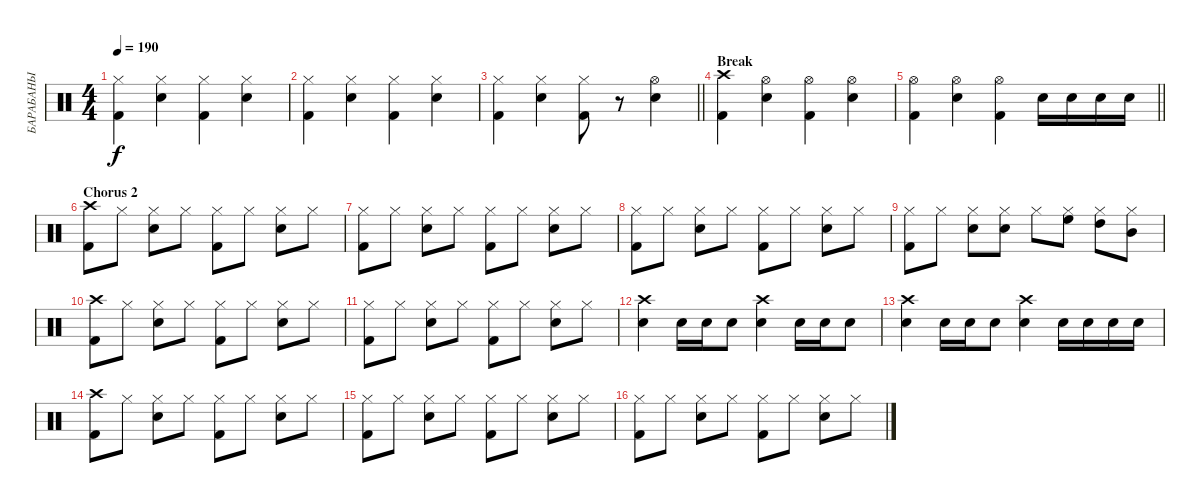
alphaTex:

\track ("БАРАБАНЫ" "БАРАБАНЫ") {instrument percussion}
\staff {score}
\articulation defaults
\ts (4 4)
\tempo 190
\clef neutral
\ks c
("Hi-Hat (closed)" "Kick (hit) 2").4{dy f} ("Hi-Hat (closed)" "Snare (hit) 2").4 ("Hi-Hat (closed)" "Kick (hit) 2").4 ("Hi-Hat (closed)" "Snare (hit) 2").4 |
("Hi-Hat (closed)" "Kick (hit) 2").4 ("Hi-Hat (closed)" "Snare (hit) 2").4 ("Hi-Hat (closed)" "Kick (hit) 2").4 ("Hi-Hat (closed)" "Snare (hit) 2").4 |
\barLineRight lightlight
("Hi-Hat (closed)" "Kick (hit) 2").4 ("Hi-Hat (closed)" "Snare (hit) 2").4 ("Hi-Hat (closed)" "Kick (hit) 2").8 r.8 ("Hi-Hat (open)" "Snare (hit) 2").4 |
\section ("" "Break")
("Crash high (hit)" "Kick (hit) 2").4 ("Hi-Hat (open)" "Snare (hit) 2").4 ("Hi-Hat (open)" "Kick (hit) 2").4 ("Hi-Hat (open)" "Snare (hit) 2").4 |
\barLineRight lightlight
("Hi-Hat (open)" "Kick (hit) 2").4 ("Hi-Hat (open)" "Snare (hit) 2").4 ("Hi-Hat (open)" "Kick (hit) 2").4 "Snare (hit) 2".16 "Snare (hit) 2".16 "Snare (hit) 2".16 "Snare (hit) 2".16 |
\section ("" "Chorus 2")
("Crash high (hit)" "Kick (hit) 2").8 "Hi-Hat (closed)".8 ("Hi-Hat (closed)" "Snare (hit) 2").8 "Hi-Hat (closed)".8 ("Hi-Hat (closed)" "Kick (hit) 2").8 "Hi-Hat (closed)".8 ("Hi-Hat (closed)" "Snare (hit) 2").8 "Hi-Hat (closed)".8 |
("Hi-Hat (closed)" "Kick (hit) 2").8 "Hi-Hat (closed)".8 ("Hi-Hat (closed)" "Snare (hit) 2").8 "Hi-Hat (closed)".8 ("Hi-Hat (closed)" "Kick (hit) 2").8 "Hi-Hat (closed)".8 ("Hi-Hat (closed)" "Snare (hit) 2").8 "Hi-Hat (closed)".8 |
("Hi-Hat (closed)" "Kick (hit) 2").8 "Hi-Hat (closed)".8 ("Hi-Hat (closed)" "Snare (hit) 2").8 "Hi-Hat (closed)".8 ("Hi-Hat (closed)" "Kick (hit) 2").8 "Hi-Hat (closed)".8 ("Hi-Hat (closed)" "Snare (hit) 2").8 "Hi-Hat (closed)".8 |
("Hi-Hat (closed)" "Kick (hit) 2").8 "Hi-Hat (closed)".8 ("Hi-Hat (closed)" "Snare (hit) 2").8 ("Hi-Hat (closed)" "Snare (hit) 2").8 "Hi-Hat (closed)".8 ("Hi-Hat (closed)" "High Floor Tom (hit)").8 ("Hi-Hat (closed)" "High Tom (hit)").8 ("Hi-Hat (closed)" "Mid Tom (hit)").8 |
("Crash high (hit)" "Kick (hit) 2").8 "Hi-Hat (closed)".8 ("Hi-Hat (closed)" "Snare (hit) 2").8 "Hi-Hat (closed)".8 ("Hi-Hat (closed)" "Kick (hit) 2").8 "Hi-Hat (closed)".8 ("Hi-Hat (closed)" "Snare (hit) 2").8 "Hi-Hat (closed)".8 |
("Hi-Hat (closed)" "Kick (hit) 2").8 "Hi-Hat (closed)".8 ("Hi-Hat (closed)" "Snare (hit) 2").8 "Hi-Hat (closed)".8 ("Hi-Hat (closed)" "Kick (hit) 2").8 "Hi-Hat (closed)".8 ("Hi-Hat (closed)" "Snare (hit) 2").8 "Hi-Hat (closed)".8 |
("Crash high (hit)" "Snare (hit) 2").4 "Snare (hit) 2".16 "Snare (hit) 2".16 "Snare (hit) 2".8 ("Crash high (hit)" "Snare (hit) 2").4 "Snare (hit) 2".16 "Snare (hit) 2".16 "Snare (hit) 2".8 |
("Crash high (hit)" "Snare (hit) 2").4 "Snare (hit) 2".16 "Snare (hit) 2".16 "Snare (hit) 2".8 ("Crash high (hit)" "Snare (hit) 2").4 "Snare (hit) 2".16 "Snare (hit) 2".16 "Snare (hit) 2".16 "Snare (hit) 2".16 |
("Crash high (hit)" "Kick (hit) 2").8 "Hi-Hat (closed)".8 ("Hi-Hat (closed)" "Snare (hit) 2").8 "Hi-Hat (closed)".8 ("Hi-Hat (closed)" "Kick (hit) 2").8 "Hi-Hat (closed)".8 ("Hi-Hat (closed)" "Snare (hit) 2").8 "Hi-Hat (closed)".8 |
("Hi-Hat (closed)" "Kick (hit) 2").8 "Hi-Hat (closed)".8 ("Hi-Hat (closed)" "Snare (hit) 2").8 "Hi-Hat (closed)".8 ("Hi-Hat (closed)" "Kick (hit) 2").8 "Hi-Hat (closed)".8 ("Hi-Hat (closed)" "Snare (hit) 2").8 "Hi-Hat (closed)".8 |
("Hi-Hat (closed)" "Kick (hit) 2").8 "Hi-Hat (closed)".8 ("Hi-Hat (closed)" "Snare (hit) 2").8 "Hi-Hat (closed)".8 ("Hi-Hat (closed)" "Kick (hit) 2").8 "Hi-Hat (closed)".8 ("Hi-Hat (closed)" "Snare (hit) 2").8 "Hi-Hat (closed)".8
